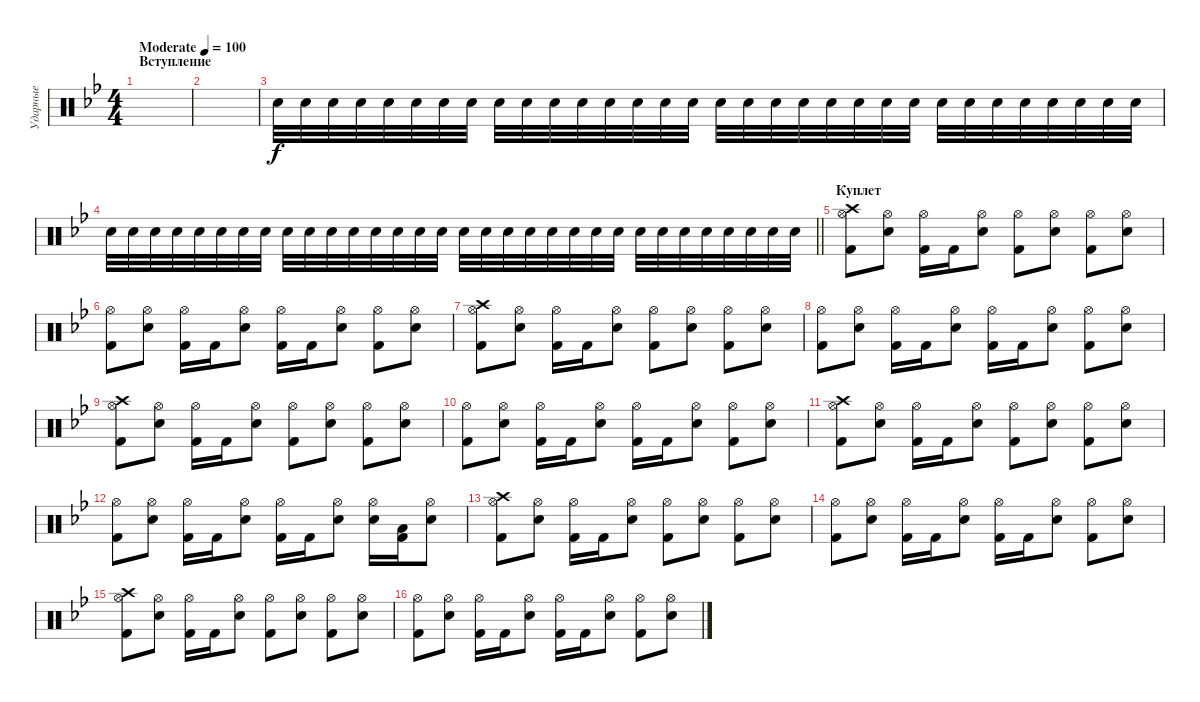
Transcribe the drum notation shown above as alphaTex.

\track ("Ударные" "Ударные") {instrument percussion}
\staff {score}
\articulation defaults
\ts (4 4)
\section ("" "Вступление")
\tempo (100 "Moderate")
\clef neutral
\ks gminor
|
|
"Electric Snare (hit)".32{volume 13} "Electric Snare (hit)".32 "Electric Snare (hit)".32 "Electric Snare (hit)".32 "Electric Snare (hit)".32 "Electric Snare (hit)".32 "Electric Snare (hit)".32 "Electric Snare (hit)".32 "Electric Snare (hit)".32 "Electric Snare (hit)".32 "Electric Snare (hit)".32 "Electric Snare (hit)".32 "Electric Snare (hit)".32 "Electric Snare (hit)".32 "Electric Snare (hit)".32 "Electric Snare (hit)".32 "Electric Snare (hit)".32 "Electric Snare (hit)".32 "Electric Snare (hit)".32 "Electric Snare (hit)".32 "Electric Snare (hit)".32 "Electric Snare (hit)".32 "Electric Snare (hit)".32 "Electric Snare (hit)".32 "Electric Snare (hit)".32 "Electric Snare (hit)".32 "Electric Snare (hit)".32 "Electric Snare (hit)".32 "Electric Snare (hit)".32 "Electric Snare (hit)".32 "Electric Snare (hit)".32 "Electric Snare (hit)".32 |
\barLineRight lightlight "Electric Snare (hit)".32 "Electric Snare (hit)".32 "Electric Snare (hit)".32 "Electric Snare (hit)".32 "Electric Snare (hit)".32 "Electric Snare (hit)".32 "Electric Snare (hit)".32 "Electric Snare (hit)".32 "Electric Snare (hit)".32 "Electric Snare (hit)".32 "Electric Snare (hit)".32 "Electric Snare (hit)".32 "Electric Snare (hit)".32 "Electric Snare (hit)".32 "Electric Snare (hit)".32 "Electric Snare (hit)".32 "Electric Snare (hit)".32 "Electric Snare (hit)".32 "Electric Snare (hit)".32 "Electric Snare (hit)".32 "Electric Snare (hit)".32 "Electric Snare (hit)".32 "Electric Snare (hit)".32 "Electric Snare (hit)".32 "Electric Snare (hit)".32 "Electric Snare (hit)".32 "Electric Snare (hit)".32 "Electric Snare (hit)".32 "Electric Snare (hit)".32 "Electric Snare (hit)".32 "Electric Snare (hit)".32 "Electric Snare (hit)".32
|
\section ("" "Куплет")
("Crash high (hit)" "Hi-Hat (open)" "Kick (hit) 2").8 ("Hi-Hat (open)" "Electric Snare (hit)").8 ("Hi-Hat (open)" "Kick (hit) 2").16 "Kick (hit) 2".16 ("Hi-Hat (open)" "Electric Snare (hit)").8 ("Hi-Hat (open)" "Kick (hit) 2").8 ("Hi-Hat (open)" "Electric Snare (hit)").8 ("Hi-Hat (open)" "Kick (hit) 2").8 ("Hi-Hat (open)" "Electric Snare (hit)").8 |
("Hi-Hat (open)" "Kick (hit) 2").8 ("Hi-Hat (open)" "Electric Snare (hit)").8 ("Hi-Hat (open)" "Kick (hit) 2").16 "Kick (hit) 2".16 ("Hi-Hat (open)" "Electric Snare (hit)").8 ("Hi-Hat (open)" "Kick (hit) 2").16 "Kick (hit) 2".16 ("Hi-Hat (open)" "Electric Snare (hit)").8 ("Hi-Hat (open)" "Kick (hit) 2").8 ("Hi-Hat (open)" "Electric Snare (hit)").8 |
("Crash high (hit)" "Hi-Hat (open)" "Kick (hit) 2").8 ("Hi-Hat (open)" "Electric Snare (hit)").8 ("Hi-Hat (open)" "Kick (hit) 2").16 "Kick (hit) 2".16 ("Hi-Hat (open)" "Electric Snare (hit)").8 ("Hi-Hat (open)" "Kick (hit) 2").8 ("Hi-Hat (open)" "Electric Snare (hit)").8 ("Hi-Hat (open)" "Kick (hit) 2").8 ("Hi-Hat (open)" "Electric Snare (hit)").8 |
("Hi-Hat (open)" "Kick (hit) 2").8 ("Hi-Hat (open)" "Electric Snare (hit)").8 ("Hi-Hat (open)" "Kick (hit) 2").16 "Kick (hit) 2".16 ("Hi-Hat (open)" "Electric Snare (hit)").8 ("Hi-Hat (open)" "Kick (hit) 2").16 "Kick (hit) 2".16 ("Hi-Hat (open)" "Electric Snare (hit)").8 ("Hi-Hat (open)" "Kick (hit) 2").8 ("Hi-Hat (open)" "Electric Snare (hit)").8 |
("Crash high (hit)" "Hi-Hat (open)" "Kick (hit) 2").8 ("Hi-Hat (open)" "Electric Snare (hit)").8 ("Hi-Hat (open)" "Kick (hit) 2").16 "Kick (hit) 2".16 ("Hi-Hat (open)" "Electric Snare (hit)").8 ("Hi-Hat (open)" "Kick (hit) 2").8 ("Hi-Hat (open)" "Electric Snare (hit)").8 ("Hi-Hat (open)" "Kick (hit) 2").8 ("Hi-Hat (open)" "Electric Snare (hit)").8 |
("Hi-Hat (open)" "Kick (hit) 2").8 ("Hi-Hat (open)" "Electric Snare (hit)").8 ("Hi-Hat (open)" "Kick (hit) 2").16 "Kick (hit) 2".16 ("Hi-Hat (open)" "Electric Snare (hit)").8 ("Hi-Hat (open)" "Kick (hit) 2").16 "Kick (hit) 2".16 ("Hi-Hat (open)" "Electric Snare (hit)").8 ("Hi-Hat (open)" "Kick (hit) 2").8 ("Hi-Hat (open)" "Electric Snare (hit)").8 |
("Crash high (hit)" "Hi-Hat (open)" "Kick (hit) 2").8 ("Hi-Hat (open)" "Electric Snare (hit)").8 ("Hi-Hat (open)" "Kick (hit) 2").16 "Kick (hit) 2".16 ("Hi-Hat (open)" "Electric Snare (hit)").8 ("Hi-Hat (open)" "Kick (hit) 2").8 ("Hi-Hat (open)" "Electric Snare (hit)").8 ("Hi-Hat (open)" "Kick (hit) 2").8 ("Hi-Hat (open)" "Electric Snare (hit)").8 |
("Hi-Hat (open)" "Kick (hit) 2").8 ("Hi-Hat (open)" "Electric Snare (hit)").8 ("Hi-Hat (open)" "Kick (hit) 2").16 "Kick (hit) 2".16 ("Hi-Hat (open)" "Electric Snare (hit)").8 ("Hi-Hat (open)" "Kick (hit) 2").16 "Kick (hit) 2".16 ("Hi-Hat (open)" "Electric Snare (hit)").8 ("Hi-Hat (open)" "Electric Snare (hit)").16 ("Low Tom (hit)" "Kick (hit) 2").16 ("Hi-Hat (open)" "Electric Snare (hit)").8 |
("Crash high (hit)" "Hi-Hat (open)" "Kick (hit) 2").8 ("Hi-Hat (open)" "Electric Snare (hit)").8 ("Hi-Hat (open)" "Kick (hit) 2").16 "Kick (hit) 2".16 ("Hi-Hat (open)" "Electric Snare (hit)").8 ("Hi-Hat (open)" "Kick (hit) 2").8 ("Hi-Hat (open)" "Electric Snare (hit)").8 ("Hi-Hat (open)" "Kick (hit) 2").8 ("Hi-Hat (open)" "Electric Snare (hit)").8 |
("Hi-Hat (open)" "Kick (hit) 2").8 ("Hi-Hat (open)" "Electric Snare (hit)").8 ("Hi-Hat (open)" "Kick (hit) 2").16 "Kick (hit) 2".16 ("Hi-Hat (open)" "Electric Snare (hit)").8 ("Hi-Hat (open)" "Kick (hit) 2").16 "Kick (hit) 2".16 ("Hi-Hat (open)" "Electric Snare (hit)").8 ("Hi-Hat (open)" "Kick (hit) 2").8 ("Hi-Hat (open)" "Electric Snare (hit)").8 |
("Crash high (hit)" "Hi-Hat (open)" "Kick (hit) 2").8 ("Hi-Hat (open)" "Electric Snare (hit)").8 ("Hi-Hat (open)" "Kick (hit) 2").16 "Kick (hit) 2".16 ("Hi-Hat (open)" "Electric Snare (hit)").8 ("Hi-Hat (open)" "Kick (hit) 2").8 ("Hi-Hat (open)" "Electric Snare (hit)").8 ("Hi-Hat (open)" "Kick (hit) 2").8 ("Hi-Hat (open)" "Electric Snare (hit)").8 |
("Hi-Hat (open)" "Kick (hit) 2").8 ("Hi-Hat (open)" "Electric Snare (hit)").8 ("Hi-Hat (open)" "Kick (hit) 2").16 "Kick (hit) 2".16 ("Hi-Hat (open)" "Electric Snare (hit)").8 ("Hi-Hat (open)" "Kick (hit) 2").16 "Kick (hit) 2".16 ("Hi-Hat (open)" "Electric Snare (hit)").8 ("Hi-Hat (open)" "Kick (hit) 2").8 ("Hi-Hat (open)" "Electric Snare (hit)").8
